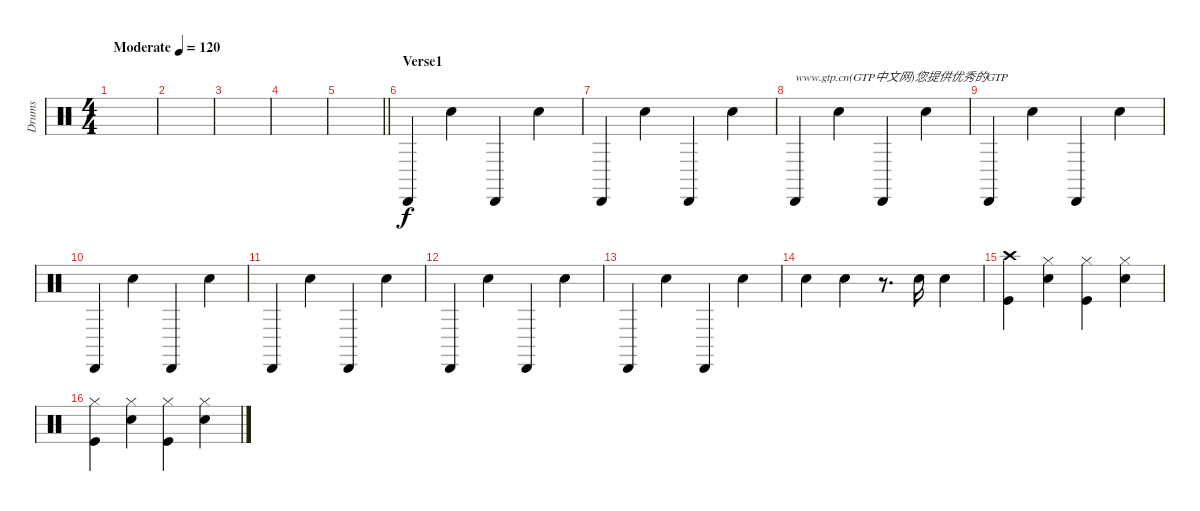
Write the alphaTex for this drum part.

\track ("Drums" "Drums") {instrument percussion}
\staff {score}
\articulation defaults
\ts (4 4)
\tempo (120 "Moderate")
\clef neutral
\ks c
|
|
|
|
\barLineRight lightlight
|
\section ("" "Verse1")
"Cabasa (hit)".4 "Hand Clap (hit)".4 "Cabasa (hit)".4 "Hand Clap (hit)".4 |
"Cabasa (hit)".4 "Hand Clap (hit)".4 "Cabasa (hit)".4 "Hand Clap (hit)".4 |
"Cabasa (hit)".4{txt "www.gtp.cn(GTP中文网)您提供优秀的GTP"} "Hand Clap (hit)".4 "Cabasa (hit)".4 "Hand Clap (hit)".4 |
"Cabasa (hit)".4 "Hand Clap (hit)".4 "Cabasa (hit)".4 "Hand Clap (hit)".4 |
"Cabasa (hit)".4 "Hand Clap (hit)".4 "Cabasa (hit)".4 "Hand Clap (hit)".4 |
"Cabasa (hit)".4 "Hand Clap (hit)".4 "Cabasa (hit)".4 "Hand Clap (hit)".4 |
"Cabasa (hit)".4 "Hand Clap (hit)".4 "Cabasa (hit)".4 "Hand Clap (hit)".4 |
"Cabasa (hit)".4 "Hand Clap (hit)".4 "Cabasa (hit)".4 "Hand Clap (hit)".4 |
"Electric Snare (hit)".4 "Electric Snare (hit)".4 r.8{d} "Electric Snare (hit)".16 "Electric Snare (hit)".4 |
("Crash high (hit)" "Kick (hit)").4 ("Hi-Hat (closed)" "Electric Snare (hit)").4 ("Hi-Hat (closed)" "Kick (hit)").4 ("Hi-Hat (closed)" "Electric Snare (hit)").4 |
("Hi-Hat (closed)" "Kick (hit)").4 ("Hi-Hat (closed)" "Electric Snare (hit)").4 ("Hi-Hat (closed)" "Kick (hit)").4 ("Hi-Hat (closed)" "Electric Snare (hit)").4
